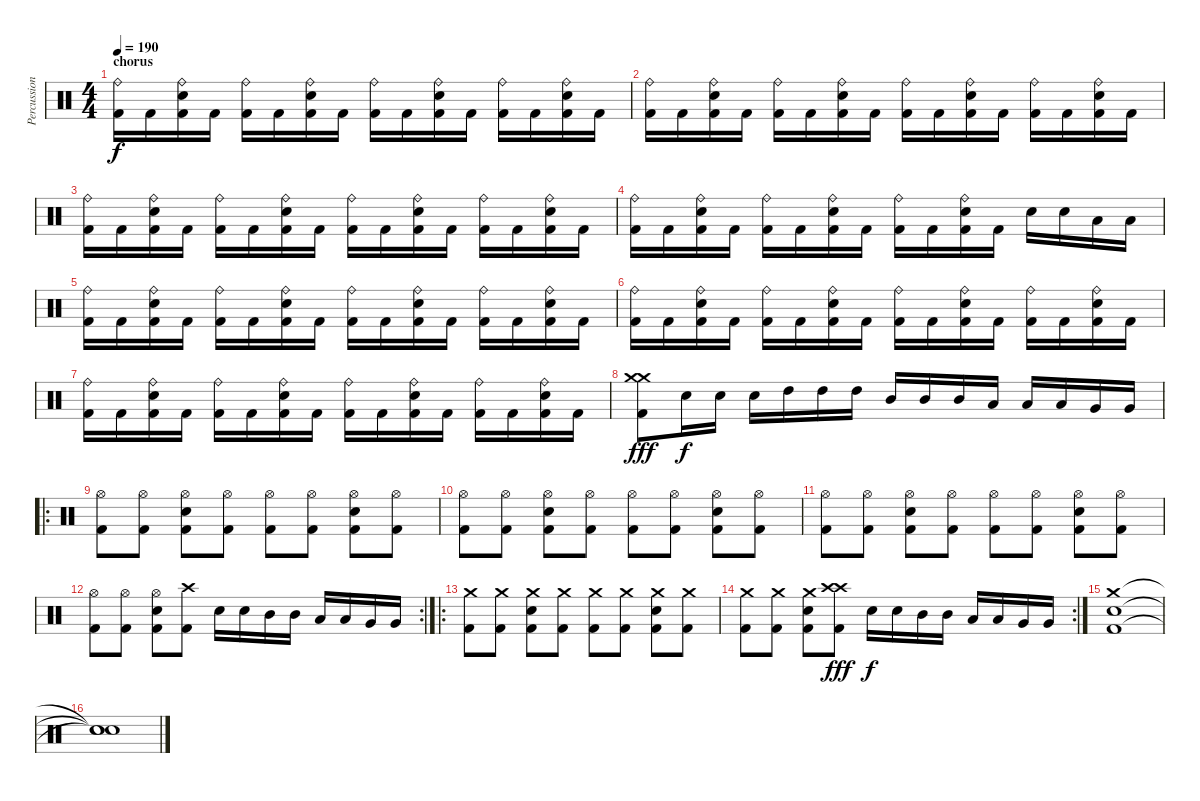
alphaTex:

\track ("Percussions" "Percussion") {instrument percussion}
\staff {score}
\articulation defaults
\ts (4 4)
\section ("" "chorus")
\tempo 190
\clef neutral
\ks c
("Ride (bell)" "Kick (hit) 2").16{dy f} "Kick (hit) 2".16 ("Ride (bell)" "Electric Snare (hit)" "Kick (hit) 2").16 "Kick (hit) 2".16 ("Ride (bell)" "Kick (hit) 2").16 "Kick (hit) 2".16 ("Ride (bell)" "Electric Snare (hit)" "Kick (hit) 2").16 "Kick (hit) 2".16 ("Ride (bell)" "Kick (hit) 2").16 "Kick (hit) 2".16 ("Ride (bell)" "Electric Snare (hit)" "Kick (hit) 2").16 "Kick (hit) 2".16 ("Ride (bell)" "Kick (hit) 2").16 "Kick (hit) 2".16 ("Ride (bell)" "Electric Snare (hit)" "Kick (hit) 2").16 "Kick (hit) 2".16 |
("Ride (bell)" "Kick (hit) 2").16 "Kick (hit) 2".16 ("Ride (bell)" "Electric Snare (hit)" "Kick (hit) 2").16 "Kick (hit) 2".16 ("Ride (bell)" "Kick (hit) 2").16 "Kick (hit) 2".16 ("Ride (bell)" "Electric Snare (hit)" "Kick (hit) 2").16 "Kick (hit) 2".16 ("Ride (bell)" "Kick (hit) 2").16 "Kick (hit) 2".16 ("Ride (bell)" "Electric Snare (hit)" "Kick (hit) 2").16 "Kick (hit) 2".16 ("Ride (bell)" "Kick (hit) 2").16 "Kick (hit) 2".16 ("Ride (bell)" "Electric Snare (hit)" "Kick (hit) 2").16 "Kick (hit) 2".16 |
("Ride (bell)" "Kick (hit) 2").16 "Kick (hit) 2".16 ("Ride (bell)" "Electric Snare (hit)" "Kick (hit) 2").16 "Kick (hit) 2".16 ("Ride (bell)" "Kick (hit) 2").16 "Kick (hit) 2".16 ("Ride (bell)" "Electric Snare (hit)" "Kick (hit) 2").16 "Kick (hit) 2".16 ("Ride (bell)" "Kick (hit) 2").16 "Kick (hit) 2".16 ("Ride (bell)" "Electric Snare (hit)" "Kick (hit) 2").16 "Kick (hit) 2".16 ("Ride (bell)" "Kick (hit) 2").16 "Kick (hit) 2".16 ("Ride (bell)" "Electric Snare (hit)" "Kick (hit) 2").16 "Kick (hit) 2".16 |
("Ride (bell)" "Kick (hit) 2").16 "Kick (hit) 2".16 ("Ride (bell)" "Electric Snare (hit)" "Kick (hit) 2").16 "Kick (hit) 2".16 ("Ride (bell)" "Kick (hit) 2").16 "Kick (hit) 2".16 ("Ride (bell)" "Electric Snare (hit)" "Kick (hit) 2").16 "Kick (hit) 2".16 ("Ride (bell)" "Kick (hit) 2").16 "Kick (hit) 2".16 ("Ride (bell)" "Electric Snare (hit)" "Kick (hit) 2").16 "Kick (hit) 2".16 "Electric Snare (hit)".16 "Electric Snare (hit)".16 "Low Tom (hit)".16 "Low Tom (hit)".16 |
("Ride (bell)" "Kick (hit) 2").16 "Kick (hit) 2".16 ("Ride (bell)" "Electric Snare (hit)" "Kick (hit) 2").16 "Kick (hit) 2".16 ("Ride (bell)" "Kick (hit) 2").16 "Kick (hit) 2".16 ("Ride (bell)" "Electric Snare (hit)" "Kick (hit) 2").16 "Kick (hit) 2".16 ("Ride (bell)" "Kick (hit) 2").16 "Kick (hit) 2".16 ("Ride (bell)" "Electric Snare (hit)" "Kick (hit) 2").16 "Kick (hit) 2".16 ("Ride (bell)" "Kick (hit) 2").16 "Kick (hit) 2".16 ("Ride (bell)" "Electric Snare (hit)" "Kick (hit) 2").16 "Kick (hit) 2".16 |
("Ride (bell)" "Kick (hit) 2").16 "Kick (hit) 2".16 ("Ride (bell)" "Electric Snare (hit)" "Kick (hit) 2").16 "Kick (hit) 2".16 ("Ride (bell)" "Kick (hit) 2").16 "Kick (hit) 2".16 ("Ride (bell)" "Electric Snare (hit)" "Kick (hit) 2").16 "Kick (hit) 2".16 ("Ride (bell)" "Kick (hit) 2").16 "Kick (hit) 2".16 ("Ride (bell)" "Electric Snare (hit)" "Kick (hit) 2").16 "Kick (hit) 2".16 ("Ride (bell)" "Kick (hit) 2").16 "Kick (hit) 2".16 ("Ride (bell)" "Electric Snare (hit)" "Kick (hit) 2").16 "Kick (hit) 2".16 |
("Ride (bell)" "Kick (hit) 2").16 "Kick (hit) 2".16 ("Ride (bell)" "Electric Snare (hit)" "Kick (hit) 2").16 "Kick (hit) 2".16 ("Ride (bell)" "Kick (hit) 2").16 "Kick (hit) 2".16 ("Ride (bell)" "Electric Snare (hit)" "Kick (hit) 2").16 "Kick (hit) 2".16 ("Ride (bell)" "Kick (hit) 2").16 "Kick (hit) 2".16 ("Ride (bell)" "Electric Snare (hit)" "Kick (hit) 2").16 "Kick (hit) 2".16 ("Ride (bell)" "Kick (hit) 2").16 "Kick (hit) 2".16 ("Ride (bell)" "Electric Snare (hit)" "Kick (hit) 2").16 "Kick (hit) 2".16 |
("Crash medium (hit)" "Crash medium (hit)" "Kick (hit) 2").8{dy fff} "Electric Snare (hit)".16{dy f} "Electric Snare (hit)".16 "Electric Snare (hit)".16 "High Tom (hit)".16 "High Tom (hit)".16 "High Tom (hit)".16 "Mid Tom (hit)".16 "Mid Tom (hit)".16 "Mid Tom (hit)".16 "Low Tom (hit)".16 "Low Tom (hit)".16 "Low Tom (hit)".16 "Very Low Tom (hit)".16 "Very Low Tom (hit)".16 |
\ro
("Hi-Hat (open)" "Kick (hit) 2").8 ("Hi-Hat (open)" "Kick (hit) 2").8 ("Hi-Hat (open)" "Electric Snare (hit)" "Kick (hit) 2").8 ("Hi-Hat (open)" "Kick (hit) 2").8 ("Hi-Hat (open)" "Kick (hit) 2").8 ("Hi-Hat (open)" "Kick (hit) 2").8 ("Hi-Hat (open)" "Electric Snare (hit)" "Kick (hit) 2").8 ("Hi-Hat (open)" "Kick (hit) 2").8 |
("Hi-Hat (open)" "Kick (hit) 2").8 ("Hi-Hat (open)" "Kick (hit) 2").8 ("Hi-Hat (open)" "Electric Snare (hit)" "Kick (hit) 2").8 ("Hi-Hat (open)" "Kick (hit) 2").8 ("Hi-Hat (open)" "Kick (hit) 2").8 ("Hi-Hat (open)" "Kick (hit) 2").8 ("Hi-Hat (open)" "Electric Snare (hit)" "Kick (hit) 2").8 ("Hi-Hat (open)" "Kick (hit) 2").8 |
("Hi-Hat (open)" "Kick (hit) 2").8 ("Hi-Hat (open)" "Kick (hit) 2").8 ("Hi-Hat (open)" "Electric Snare (hit)" "Kick (hit) 2").8 ("Hi-Hat (open)" "Kick (hit) 2").8 ("Hi-Hat (open)" "Kick (hit) 2").8 ("Hi-Hat (open)" "Kick (hit) 2").8 ("Hi-Hat (open)" "Electric Snare (hit)" "Kick (hit) 2").8 ("Hi-Hat (open)" "Kick (hit) 2").8 |
\rc 2
("Hi-Hat (open)" "Kick (hit) 2").8 ("Hi-Hat (open)" "Kick (hit) 2").8 ("Hi-Hat (open)" "Electric Snare (hit)" "Kick (hit) 2").8 ("Crash high (hit)" "Kick (hit) 2").8 "Electric Snare (hit)".16 "Electric Snare (hit)".16 "Mid Tom (hit)".16 "Mid Tom (hit)".16 "Low Tom (hit)".16 "Low Tom (hit)".16 "Very Low Tom (hit)".16 "Very Low Tom (hit)".16 |
\ro
("Crash medium (hit)" "Kick (hit) 2").8 ("Crash medium (hit)" "Kick (hit) 2").8 ("Crash medium (hit)" "Electric Snare (hit)" "Kick (hit) 2").8 ("Crash medium (hit)" "Kick (hit) 2").8 ("Crash medium (hit)" "Kick (hit) 2").8 ("Crash medium (hit)" "Kick (hit) 2").8 ("Crash medium (hit)" "Electric Snare (hit)" "Kick (hit) 2").8 ("Crash medium (hit)" "Kick (hit) 2").8 |
\rc 2
("Crash medium (hit)" "Kick (hit) 2").8 ("Crash medium (hit)" "Kick (hit) 2").8 ("Crash medium (hit)" "Electric Snare (hit)" "Kick (hit) 2").8 ("Crash high (hit)" "Crash high (hit)" "Kick (hit) 2").8{dy fff} "Electric Snare (hit)".16{dy f} "Electric Snare (hit)".16 "Mid Tom (hit)".16 "Mid Tom (hit)".16 "Low Tom (hit)".16 "Low Tom (hit)".16 "Very Low Tom (hit)".16 "Very Low Tom (hit)".16 |
("Crash medium (hit)" "Electric Snare (hit)" "Kick (hit) 2").1 |
("Snare (hit)"{t} "Snare (hit)"{t} "Snare (hit)"{t}).1
